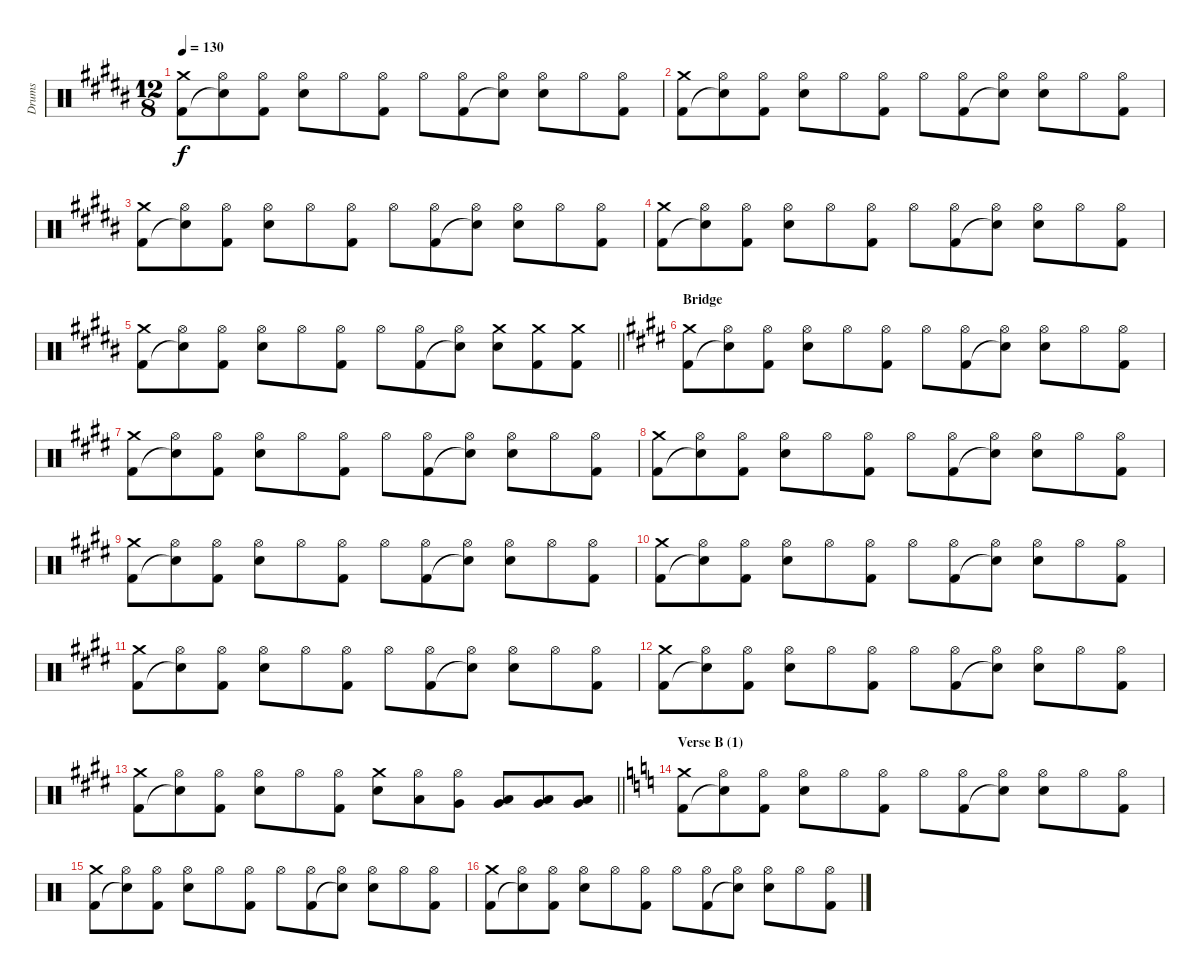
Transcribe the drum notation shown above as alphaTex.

\track ("Drums" "Drums") {instrument percussion}
\staff {score}
\articulation defaults
\ts (12 8)
\tempo 130
\clef neutral
\ks b
("Crash medium (hit)" "Kick (hit) 2").8{dy f} ("Hi-Hat (open)" "Snare (hit)"{t}).8 ("Hi-Hat (open)" "Kick (hit) 2").8 ("Hi-Hat (open)" "Electric Snare (hit)").8 "Hi-Hat (open)".8 ("Hi-Hat (open)" "Kick (hit) 2").8 "Hi-Hat (open)".8 ("Hi-Hat (open)" "Kick (hit) 2").8 ("Hi-Hat (open)" "Snare (hit)"{t}).8 ("Hi-Hat (open)" "Electric Snare (hit)").8 "Hi-Hat (open)".8 ("Hi-Hat (open)" "Kick (hit) 2").8 |
("Crash medium (hit)" "Kick (hit) 2").8 ("Hi-Hat (open)" "Snare (hit)"{t}).8 ("Hi-Hat (open)" "Kick (hit) 2").8 ("Hi-Hat (open)" "Electric Snare (hit)").8 "Hi-Hat (open)".8 ("Hi-Hat (open)" "Kick (hit) 2").8 "Hi-Hat (open)".8 ("Hi-Hat (open)" "Kick (hit) 2").8 ("Hi-Hat (open)" "Snare (hit)"{t}).8 ("Hi-Hat (open)" "Electric Snare (hit)").8 "Hi-Hat (open)".8 ("Hi-Hat (open)" "Kick (hit) 2").8 |
("Crash medium (hit)" "Kick (hit) 2").8 ("Hi-Hat (open)" "Snare (hit)"{t}).8 ("Hi-Hat (open)" "Kick (hit) 2").8 ("Hi-Hat (open)" "Electric Snare (hit)").8 "Hi-Hat (open)".8 ("Hi-Hat (open)" "Kick (hit) 2").8 "Hi-Hat (open)".8 ("Hi-Hat (open)" "Kick (hit) 2").8 ("Hi-Hat (open)" "Snare (hit)"{t}).8 ("Hi-Hat (open)" "Electric Snare (hit)").8 "Hi-Hat (open)".8 ("Hi-Hat (open)" "Kick (hit) 2").8 |
("Crash medium (hit)" "Kick (hit) 2").8 ("Hi-Hat (open)" "Snare (hit)"{t}).8 ("Hi-Hat (open)" "Kick (hit) 2").8 ("Hi-Hat (open)" "Electric Snare (hit)").8 "Hi-Hat (open)".8 ("Hi-Hat (open)" "Kick (hit) 2").8 "Hi-Hat (open)".8 ("Hi-Hat (open)" "Kick (hit) 2").8 ("Hi-Hat (open)" "Snare (hit)"{t}).8 ("Hi-Hat (open)" "Electric Snare (hit)").8 "Hi-Hat (open)".8 ("Hi-Hat (open)" "Kick (hit) 2").8 |
\barLineRight lightlight
("Crash medium (hit)" "Kick (hit) 2").8 ("Hi-Hat (open)" "Snare (hit)"{t}).8 ("Hi-Hat (open)" "Kick (hit) 2").8 ("Hi-Hat (open)" "Electric Snare (hit)").8 "Hi-Hat (open)".8 ("Hi-Hat (open)" "Kick (hit) 2").8 "Hi-Hat (open)".8 ("Hi-Hat (open)" "Kick (hit) 2").8 ("Hi-Hat (open)" "Snare (hit)"{t}).8 ("Crash medium (hit)" "Electric Snare (hit)").8 ("Crash medium (hit)" "Kick (hit) 2").8 ("Crash medium (hit)" "Kick (hit) 2").8 |
\section ("" "Bridge")
\ks e
("Crash medium (hit)" "Kick (hit) 2").8 ("Hi-Hat (open)" "Snare (hit)"{t}).8 ("Hi-Hat (open)" "Kick (hit) 2").8 ("Hi-Hat (open)" "Electric Snare (hit)").8 "Hi-Hat (open)".8 ("Hi-Hat (open)" "Kick (hit) 2").8 "Hi-Hat (open)".8 ("Hi-Hat (open)" "Kick (hit) 2").8 ("Hi-Hat (open)" "Snare (hit)"{t}).8 ("Hi-Hat (open)" "Electric Snare (hit)").8 "Hi-Hat (open)".8 ("Hi-Hat (open)" "Kick (hit) 2").8 |
("Crash medium (hit)" "Kick (hit) 2").8 ("Hi-Hat (open)" "Snare (hit)"{t}).8 ("Hi-Hat (open)" "Kick (hit) 2").8 ("Hi-Hat (open)" "Electric Snare (hit)").8 "Hi-Hat (open)".8 ("Hi-Hat (open)" "Kick (hit) 2").8 "Hi-Hat (open)".8 ("Hi-Hat (open)" "Kick (hit) 2").8 ("Hi-Hat (open)" "Snare (hit)"{t}).8 ("Hi-Hat (open)" "Electric Snare (hit)").8 "Hi-Hat (open)".8 ("Hi-Hat (open)" "Kick (hit) 2").8 |
("Crash medium (hit)" "Kick (hit) 2").8 ("Hi-Hat (open)" "Snare (hit)"{t}).8 ("Hi-Hat (open)" "Kick (hit) 2").8 ("Hi-Hat (open)" "Electric Snare (hit)").8 "Hi-Hat (open)".8 ("Hi-Hat (open)" "Kick (hit) 2").8 "Hi-Hat (open)".8 ("Hi-Hat (open)" "Kick (hit) 2").8 ("Hi-Hat (open)" "Snare (hit)"{t}).8 ("Hi-Hat (open)" "Electric Snare (hit)").8 "Hi-Hat (open)".8 ("Hi-Hat (open)" "Kick (hit) 2").8 |
("Crash medium (hit)" "Kick (hit) 2").8 ("Hi-Hat (open)" "Snare (hit)"{t}).8 ("Hi-Hat (open)" "Kick (hit) 2").8 ("Hi-Hat (open)" "Electric Snare (hit)").8 "Hi-Hat (open)".8 ("Hi-Hat (open)" "Kick (hit) 2").8 "Hi-Hat (open)".8 ("Hi-Hat (open)" "Kick (hit) 2").8 ("Hi-Hat (open)" "Snare (hit)"{t}).8 ("Hi-Hat (open)" "Electric Snare (hit)").8 "Hi-Hat (open)".8 ("Hi-Hat (open)" "Kick (hit) 2").8 |
("Crash medium (hit)" "Kick (hit) 2").8 ("Hi-Hat (open)" "Snare (hit)"{t}).8 ("Hi-Hat (open)" "Kick (hit) 2").8 ("Hi-Hat (open)" "Electric Snare (hit)").8 "Hi-Hat (open)".8 ("Hi-Hat (open)" "Kick (hit) 2").8 "Hi-Hat (open)".8 ("Hi-Hat (open)" "Kick (hit) 2").8 ("Hi-Hat (open)" "Snare (hit)"{t}).8 ("Hi-Hat (open)" "Electric Snare (hit)").8 "Hi-Hat (open)".8 ("Hi-Hat (open)" "Kick (hit) 2").8 |
("Crash medium (hit)" "Kick (hit) 2").8 ("Hi-Hat (open)" "Snare (hit)"{t}).8 ("Hi-Hat (open)" "Kick (hit) 2").8 ("Hi-Hat (open)" "Electric Snare (hit)").8 "Hi-Hat (open)".8 ("Hi-Hat (open)" "Kick (hit) 2").8 "Hi-Hat (open)".8 ("Hi-Hat (open)" "Kick (hit) 2").8 ("Hi-Hat (open)" "Snare (hit)"{t}).8 ("Hi-Hat (open)" "Electric Snare (hit)").8 "Hi-Hat (open)".8 ("Hi-Hat (open)" "Kick (hit) 2").8 |
("Crash medium (hit)" "Kick (hit) 2").8 ("Hi-Hat (open)" "Snare (hit)"{t}).8 ("Hi-Hat (open)" "Kick (hit) 2").8 ("Hi-Hat (open)" "Electric Snare (hit)").8 "Hi-Hat (open)".8 ("Hi-Hat (open)" "Kick (hit) 2").8 "Hi-Hat (open)".8 ("Hi-Hat (open)" "Kick (hit) 2").8 ("Hi-Hat (open)" "Snare (hit)"{t}).8 ("Hi-Hat (open)" "Electric Snare (hit)").8 "Hi-Hat (open)".8 ("Hi-Hat (open)" "Kick (hit) 2").8 |
\barLineRight lightlight
("Crash medium (hit)" "Kick (hit) 2").8 ("Hi-Hat (open)" "Snare (hit)"{t}).8 ("Hi-Hat (open)" "Kick (hit) 2").8 ("Hi-Hat (open)" "Electric Snare (hit)").8 "Hi-Hat (open)".8 ("Hi-Hat (open)" "Kick (hit) 2").8 ("Crash medium (hit)" "Electric Snare (hit)").8 ("Hi-Hat (open)" "Low Tom (hit)").8 ("Hi-Hat (open)" "Very Low Tom (hit)").8 ("Low Tom (hit)" "Very Low Tom (hit)").8 ("Very Low Tom (hit)" "Low Floor Tom (hit)").8 ("Very Low Tom (hit)" "Low Floor Tom (hit)").8 |
\section ("" "Verse B (1)")
\ks c
("Crash medium (hit)" "Kick (hit) 2").8 ("Hi-Hat (open)" "Snare (hit)"{t}).8 ("Hi-Hat (open)" "Kick (hit) 2").8 ("Hi-Hat (open)" "Electric Snare (hit)").8 "Hi-Hat (open)".8 ("Hi-Hat (open)" "Kick (hit) 2").8 "Hi-Hat (open)".8 ("Hi-Hat (open)" "Kick (hit) 2").8 ("Hi-Hat (open)" "Snare (hit)"{t}).8 ("Hi-Hat (open)" "Electric Snare (hit)").8 "Hi-Hat (open)".8 ("Hi-Hat (open)" "Kick (hit) 2").8 |
("Crash medium (hit)" "Kick (hit) 2").8 ("Hi-Hat (open)" "Snare (hit)"{t}).8 ("Hi-Hat (open)" "Kick (hit) 2").8 ("Hi-Hat (open)" "Electric Snare (hit)").8 "Hi-Hat (open)".8 ("Hi-Hat (open)" "Kick (hit) 2").8 "Hi-Hat (open)".8 ("Hi-Hat (open)" "Kick (hit) 2").8 ("Hi-Hat (open)" "Snare (hit)"{t}).8 ("Hi-Hat (open)" "Electric Snare (hit)").8 "Hi-Hat (open)".8 ("Hi-Hat (open)" "Kick (hit) 2").8 |
("Crash medium (hit)" "Kick (hit) 2").8 ("Hi-Hat (open)" "Snare (hit)"{t}).8 ("Hi-Hat (open)" "Kick (hit) 2").8 ("Hi-Hat (open)" "Electric Snare (hit)").8 "Hi-Hat (open)".8 ("Hi-Hat (open)" "Kick (hit) 2").8 "Hi-Hat (open)".8 ("Hi-Hat (open)" "Kick (hit) 2").8 ("Hi-Hat (open)" "Snare (hit)"{t}).8 ("Hi-Hat (open)" "Electric Snare (hit)").8 "Hi-Hat (open)".8 ("Hi-Hat (open)" "Kick (hit) 2").8
